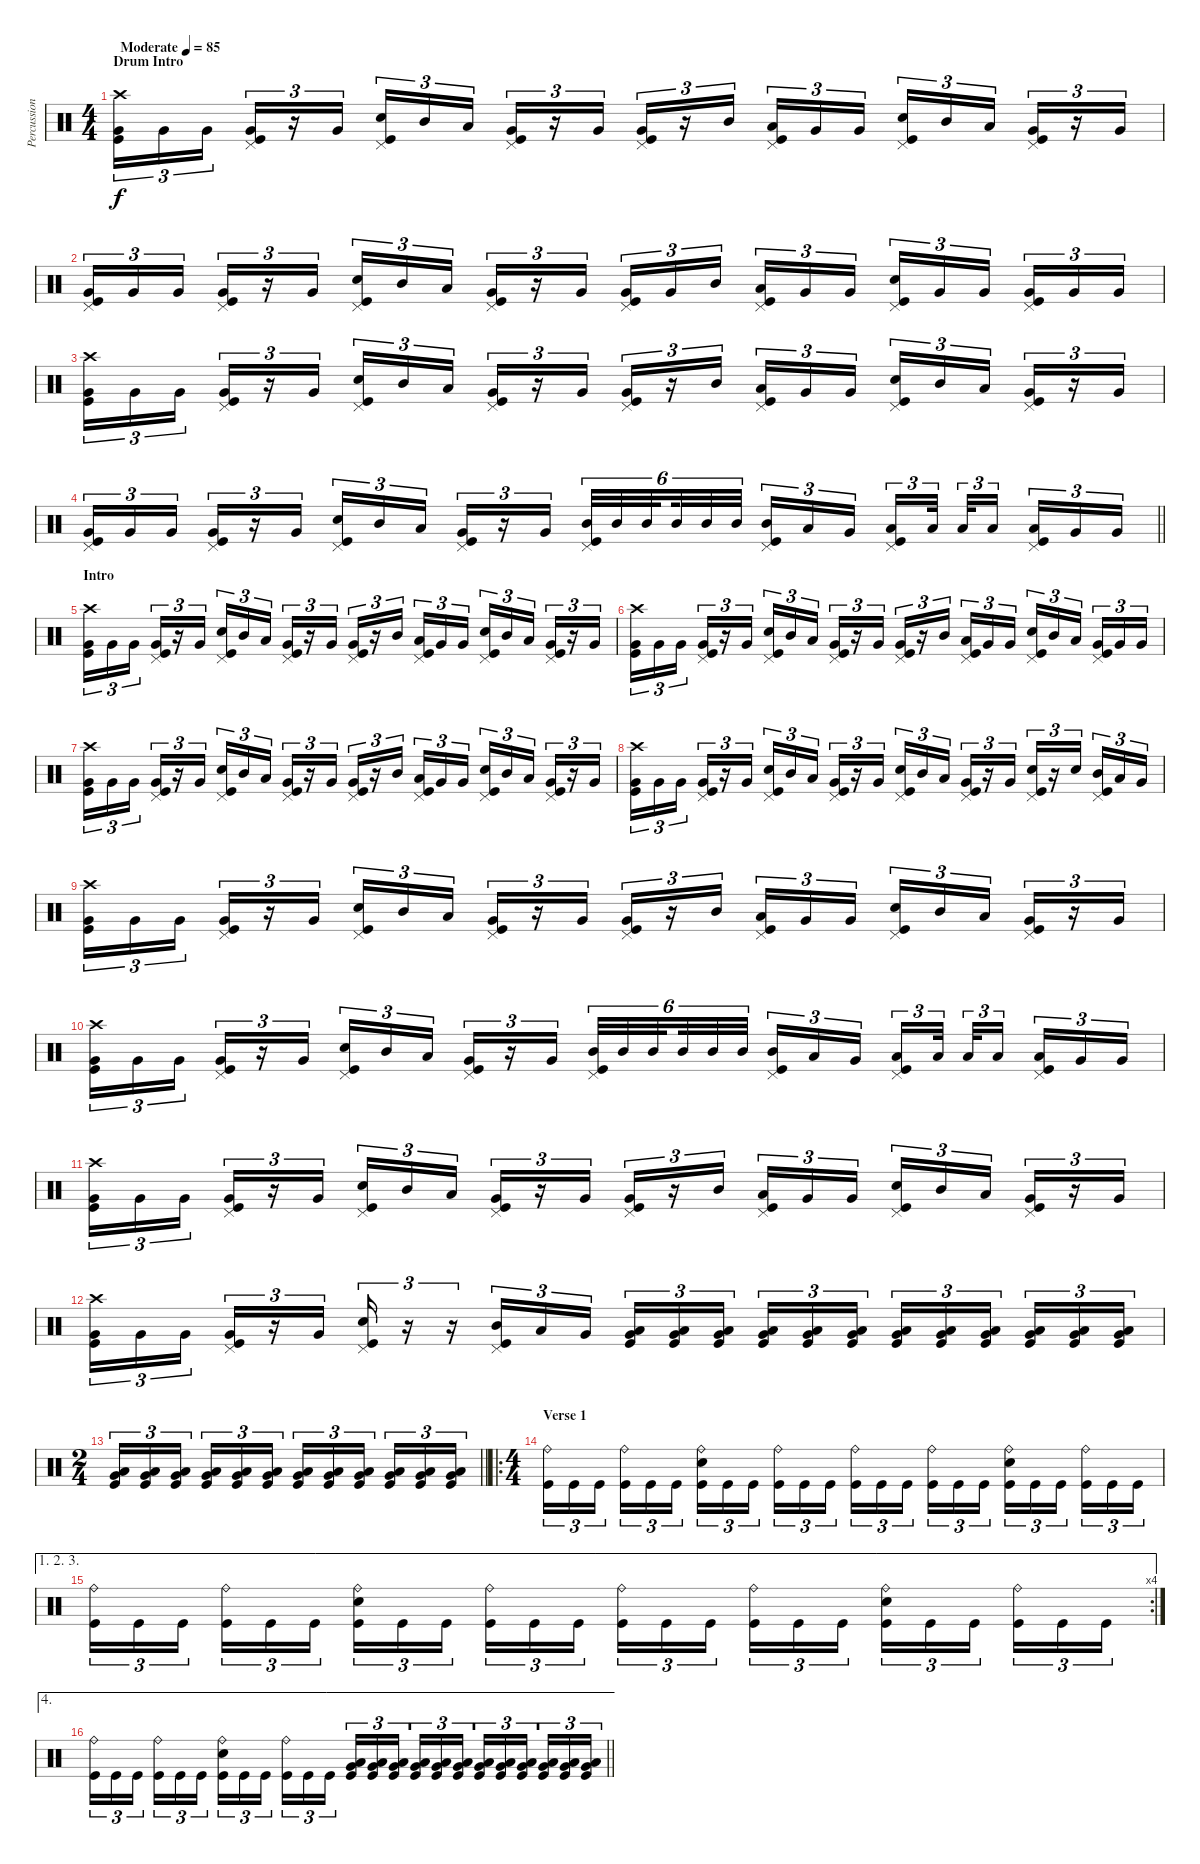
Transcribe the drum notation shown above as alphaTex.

\track ("Percussion" "Percussion") {instrument percussion}
\staff {score}
\articulation defaults
\ts (4 4)
\section ("" "Drum Intro")
\tempo (85 "Moderate")
\clef neutral
\ks c
("Crash high (hit)" "Very Low Tom (hit)" "Kick (hit)").16{tu (3 2) dy f} "Very Low Tom (hit)".16{tu (3 2)} "Very Low Tom (hit)".16{tu (3 2) beam splitsecondary} ("Pedal Hi-Hat (hit)" "Very Low Tom (hit)" "Kick (hit)").16{tu (3 2)} r.16{tu (3 2)} "Very Low Tom (hit)".16{tu (3 2)} ("Pedal Hi-Hat (hit)" "Electric Snare (hit)" "Kick (hit)").16{tu (3 2)} "Mid Tom (hit)".16{tu (3 2)} "Low Tom (hit)".16{tu (3 2) beam splitsecondary} ("Pedal Hi-Hat (hit)" "Very Low Tom (hit)" "Kick (hit)").16{tu (3 2)} r.16{tu (3 2)} "Very Low Tom (hit)".16{tu (3 2)} ("Pedal Hi-Hat (hit)" "Very Low Tom (hit)" "Kick (hit)").16{tu (3 2)} r.16{tu (3 2)} "Mid Tom (hit)".16{tu (3 2) beam splitsecondary} ("Pedal Hi-Hat (hit)" "Low Tom (hit)" "Kick (hit)").16{tu (3 2)} "Very Low Tom (hit)".16{tu (3 2)} "Very Low Tom (hit)".16{tu (3 2)} ("Pedal Hi-Hat (hit)" "Electric Snare (hit)" "Kick (hit)").16{tu (3 2)} "Mid Tom (hit)".16{tu (3 2)} "Low Tom (hit)".16{tu (3 2) beam splitsecondary} ("Pedal Hi-Hat (hit)" "Very Low Tom (hit)" "Kick (hit)").16{tu (3 2)} r.16{tu (3 2)} "Very Low Tom (hit)".16{tu (3 2)} |
("Pedal Hi-Hat (hit)" "Very Low Tom (hit)" "Kick (hit)").16{tu (3 2)} "Very Low Tom (hit)".16{tu (3 2)} "Very Low Tom (hit)".16{tu (3 2) beam splitsecondary} ("Pedal Hi-Hat (hit)" "Very Low Tom (hit)" "Kick (hit)").16{tu (3 2)} r.16{tu (3 2)} "Very Low Tom (hit)".16{tu (3 2)} ("Pedal Hi-Hat (hit)" "Electric Snare (hit)" "Kick (hit)").16{tu (3 2)} "Mid Tom (hit)".16{tu (3 2)} "Low Tom (hit)".16{tu (3 2) beam splitsecondary} ("Pedal Hi-Hat (hit)" "Very Low Tom (hit)" "Kick (hit)").16{tu (3 2)} r.16{tu (3 2)} "Very Low Tom (hit)".16{tu (3 2)} ("Pedal Hi-Hat (hit)" "Very Low Tom (hit)" "Kick (hit)").16{tu (3 2)} "Very Low Tom (hit)".16{tu (3 2)} "Mid Tom (hit)".16{tu (3 2) beam splitsecondary} ("Pedal Hi-Hat (hit)" "Low Tom (hit)" "Kick (hit)").16{tu (3 2)} "Very Low Tom (hit)".16{tu (3 2)} "Very Low Tom (hit)".16{tu (3 2)} ("Pedal Hi-Hat (hit)" "Electric Snare (hit)" "Kick (hit)").16{tu (3 2)} "Very Low Tom (hit)".16{tu (3 2)} "Very Low Tom (hit)".16{tu (3 2) beam splitsecondary} ("Pedal Hi-Hat (hit)" "Very Low Tom (hit)" "Kick (hit)").16{tu (3 2)} "Very Low Tom (hit)".16{tu (3 2)} "Very Low Tom (hit)".16{tu (3 2)} |
("Crash high (hit)" "Very Low Tom (hit)" "Kick (hit)").16{tu (3 2)} "Very Low Tom (hit)".16{tu (3 2)} "Very Low Tom (hit)".16{tu (3 2) beam splitsecondary} ("Pedal Hi-Hat (hit)" "Very Low Tom (hit)" "Kick (hit)").16{tu (3 2)} r.16{tu (3 2)} "Very Low Tom (hit)".16{tu (3 2)} ("Pedal Hi-Hat (hit)" "Electric Snare (hit)" "Kick (hit)").16{tu (3 2)} "Mid Tom (hit)".16{tu (3 2)} "Low Tom (hit)".16{tu (3 2) beam splitsecondary} ("Pedal Hi-Hat (hit)" "Very Low Tom (hit)" "Kick (hit)").16{tu (3 2)} r.16{tu (3 2)} "Very Low Tom (hit)".16{tu (3 2)} ("Pedal Hi-Hat (hit)" "Very Low Tom (hit)" "Kick (hit)").16{tu (3 2)} r.16{tu (3 2)} "Mid Tom (hit)".16{tu (3 2) beam splitsecondary} ("Pedal Hi-Hat (hit)" "Low Tom (hit)" "Kick (hit)").16{tu (3 2)} "Very Low Tom (hit)".16{tu (3 2)} "Very Low Tom (hit)".16{tu (3 2)} ("Pedal Hi-Hat (hit)" "Electric Snare (hit)" "Kick (hit)").16{tu (3 2)} "Mid Tom (hit)".16{tu (3 2)} "Low Tom (hit)".16{tu (3 2) beam splitsecondary} ("Pedal Hi-Hat (hit)" "Very Low Tom (hit)" "Kick (hit)").16{tu (3 2)} r.16{tu (3 2)} "Very Low Tom (hit)".16{tu (3 2)} |
\barLineRight lightlight
("Pedal Hi-Hat (hit)" "Very Low Tom (hit)" "Kick (hit)").16{tu (3 2)} "Very Low Tom (hit)".16{tu (3 2)} "Very Low Tom (hit)".16{tu (3 2) beam splitsecondary} ("Pedal Hi-Hat (hit)" "Very Low Tom (hit)" "Kick (hit)").16{tu (3 2)} r.16{tu (3 2)} "Very Low Tom (hit)".16{tu (3 2)} ("Pedal Hi-Hat (hit)" "Electric Snare (hit)" "Kick (hit)").16{tu (3 2)} "Mid Tom (hit)".16{tu (3 2)} "Low Tom (hit)".16{tu (3 2) beam splitsecondary} ("Pedal Hi-Hat (hit)" "Very Low Tom (hit)" "Kick (hit)").16{tu (3 2)} r.16{tu (3 2)} "Very Low Tom (hit)".16{tu (3 2)} ("Pedal Hi-Hat (hit)" "Mid Tom (hit)" "Kick (hit)").32{tu (6 4)} "Mid Tom (hit)".32{tu (6 4)} "Mid Tom (hit)".32{tu (6 4) beam splitsecondary} "Mid Tom (hit)".32{tu (6 4)} "Mid Tom (hit)".32{tu (6 4)} "Mid Tom (hit)".32{tu (6 4) beam splitsecondary} ("Pedal Hi-Hat (hit)" "Mid Tom (hit)" "Kick (hit)").16{tu (3 2)} "Low Tom (hit)".16{tu (3 2)} "Very Low Tom (hit)".16{tu (3 2)} ("Pedal Hi-Hat (hit)" "Low Tom (hit)" "Kick (hit)").16{tu (3 2)} "Low Tom (hit)".32{tu (3 2) beam splitsecondary} "Low Tom (hit)".32{tu (3 2)} "Low Tom (hit)".16{tu (3 2) beam splitsecondary} ("Pedal Hi-Hat (hit)" "Low Tom (hit)" "Kick (hit)").16{tu (3 2)} "Very Low Tom (hit)".16{tu (3 2)} "Very Low Tom (hit)".16{tu (3 2)} |
\section ("" "Intro")
("Crash high (hit)" "Very Low Tom (hit)" "Kick (hit)").16{tu (3 2)} "Very Low Tom (hit)".16{tu (3 2)} "Very Low Tom (hit)".16{tu (3 2) beam splitsecondary} ("Pedal Hi-Hat (hit)" "Very Low Tom (hit)" "Kick (hit)").16{tu (3 2)} r.16{tu (3 2)} "Very Low Tom (hit)".16{tu (3 2)} ("Pedal Hi-Hat (hit)" "Electric Snare (hit)" "Kick (hit)").16{tu (3 2)} "Mid Tom (hit)".16{tu (3 2)} "Low Tom (hit)".16{tu (3 2) beam splitsecondary} ("Pedal Hi-Hat (hit)" "Very Low Tom (hit)" "Kick (hit)").16{tu (3 2)} r.16{tu (3 2)} "Very Low Tom (hit)".16{tu (3 2)} ("Pedal Hi-Hat (hit)" "Very Low Tom (hit)" "Kick (hit)").16{tu (3 2)} r.16{tu (3 2)} "Mid Tom (hit)".16{tu (3 2) beam splitsecondary} ("Pedal Hi-Hat (hit)" "Low Tom (hit)" "Kick (hit)").16{tu (3 2)} "Very Low Tom (hit)".16{tu (3 2)} "Very Low Tom (hit)".16{tu (3 2)} ("Pedal Hi-Hat (hit)" "Electric Snare (hit)" "Kick (hit)").16{tu (3 2)} "Mid Tom (hit)".16{tu (3 2)} "Low Tom (hit)".16{tu (3 2) beam splitsecondary} ("Pedal Hi-Hat (hit)" "Very Low Tom (hit)" "Kick (hit)").16{tu (3 2)} r.16{tu (3 2)} "Very Low Tom (hit)".16{tu (3 2)} |
("Crash high (hit)" "Very Low Tom (hit)" "Kick (hit)").16{tu (3 2)} "Very Low Tom (hit)".16{tu (3 2)} "Very Low Tom (hit)".16{tu (3 2) beam splitsecondary} ("Pedal Hi-Hat (hit)" "Very Low Tom (hit)" "Kick (hit)").16{tu (3 2)} r.16{tu (3 2)} "Very Low Tom (hit)".16{tu (3 2)} ("Pedal Hi-Hat (hit)" "Electric Snare (hit)" "Kick (hit)").16{tu (3 2)} "Mid Tom (hit)".16{tu (3 2)} "Low Tom (hit)".16{tu (3 2) beam splitsecondary} ("Pedal Hi-Hat (hit)" "Very Low Tom (hit)" "Kick (hit)").16{tu (3 2)} r.16{tu (3 2)} "Very Low Tom (hit)".16{tu (3 2)} ("Pedal Hi-Hat (hit)" "Very Low Tom (hit)" "Kick (hit)").16{tu (3 2)} r.16{tu (3 2)} "Mid Tom (hit)".16{tu (3 2) beam splitsecondary} ("Pedal Hi-Hat (hit)" "Low Tom (hit)" "Kick (hit)").16{tu (3 2)} "Very Low Tom (hit)".16{tu (3 2)} "Very Low Tom (hit)".16{tu (3 2)} ("Pedal Hi-Hat (hit)" "Electric Snare (hit)" "Kick (hit)").16{tu (3 2)} "Mid Tom (hit)".16{tu (3 2)} "Low Tom (hit)".16{tu (3 2) beam splitsecondary} ("Pedal Hi-Hat (hit)" "Very Low Tom (hit)" "Kick (hit)").16{tu (3 2)} "Very Low Tom (hit)".16{tu (3 2)} "Very Low Tom (hit)".16{tu (3 2)} |
("Crash high (hit)" "Very Low Tom (hit)" "Kick (hit)").16{tu (3 2)} "Very Low Tom (hit)".16{tu (3 2)} "Very Low Tom (hit)".16{tu (3 2) beam splitsecondary} ("Pedal Hi-Hat (hit)" "Very Low Tom (hit)" "Kick (hit)").16{tu (3 2)} r.16{tu (3 2)} "Very Low Tom (hit)".16{tu (3 2)} ("Pedal Hi-Hat (hit)" "Electric Snare (hit)" "Kick (hit)").16{tu (3 2)} "Mid Tom (hit)".16{tu (3 2)} "Low Tom (hit)".16{tu (3 2) beam splitsecondary} ("Pedal Hi-Hat (hit)" "Very Low Tom (hit)" "Kick (hit)").16{tu (3 2)} r.16{tu (3 2)} "Very Low Tom (hit)".16{tu (3 2)} ("Pedal Hi-Hat (hit)" "Very Low Tom (hit)" "Kick (hit)").16{tu (3 2)} r.16{tu (3 2)} "Mid Tom (hit)".16{tu (3 2) beam splitsecondary} ("Pedal Hi-Hat (hit)" "Low Tom (hit)" "Kick (hit)").16{tu (3 2)} "Very Low Tom (hit)".16{tu (3 2)} "Very Low Tom (hit)".16{tu (3 2)} ("Pedal Hi-Hat (hit)" "Electric Snare (hit)" "Kick (hit)").16{tu (3 2)} "Mid Tom (hit)".16{tu (3 2)} "Low Tom (hit)".16{tu (3 2) beam splitsecondary} ("Pedal Hi-Hat (hit)" "Very Low Tom (hit)" "Kick (hit)").16{tu (3 2)} r.16{tu (3 2)} "Very Low Tom (hit)".16{tu (3 2)} |
("Crash high (hit)" "Very Low Tom (hit)" "Kick (hit)").16{tu (3 2)} "Very Low Tom (hit)".16{tu (3 2)} "Very Low Tom (hit)".16{tu (3 2) beam splitsecondary} ("Pedal Hi-Hat (hit)" "Very Low Tom (hit)" "Kick (hit)").16{tu (3 2)} r.16{tu (3 2)} "Very Low Tom (hit)".16{tu (3 2)} ("Pedal Hi-Hat (hit)" "Electric Snare (hit)" "Kick (hit)").16{tu (3 2)} "Mid Tom (hit)".16{tu (3 2)} "Low Tom (hit)".16{tu (3 2) beam splitsecondary} ("Pedal Hi-Hat (hit)" "Very Low Tom (hit)" "Kick (hit)").16{tu (3 2)} r.16{tu (3 2)} "Very Low Tom (hit)".16{tu (3 2)} ("Pedal Hi-Hat (hit)" "Electric Snare (hit)" "Kick (hit)").16{tu (3 2)} "Mid Tom (hit)".16{tu (3 2)} "Low Tom (hit)".16{tu (3 2) beam splitsecondary} ("Pedal Hi-Hat (hit)" "Very Low Tom (hit)" "Kick (hit)").16{tu (3 2)} r.16{tu (3 2)} "Very Low Tom (hit)".16{tu (3 2)} ("Pedal Hi-Hat (hit)" "Electric Snare (hit)" "Kick (hit)").16{tu (3 2)} r.16{tu (3 2)} "Electric Snare (hit)".16{tu (3 2) beam splitsecondary} ("Pedal Hi-Hat (hit)" "Mid Tom (hit)" "Kick (hit)").16{tu (3 2)} "Low Tom (hit)".16{tu (3 2)} "Very Low Tom (hit)".16{tu (3 2)} |
("Crash high (hit)" "Very Low Tom (hit)" "Kick (hit)").16{tu (3 2)} "Very Low Tom (hit)".16{tu (3 2)} "Very Low Tom (hit)".16{tu (3 2) beam splitsecondary} ("Pedal Hi-Hat (hit)" "Very Low Tom (hit)" "Kick (hit)").16{tu (3 2)} r.16{tu (3 2)} "Very Low Tom (hit)".16{tu (3 2)} ("Pedal Hi-Hat (hit)" "Electric Snare (hit)" "Kick (hit)").16{tu (3 2)} "Mid Tom (hit)".16{tu (3 2)} "Low Tom (hit)".16{tu (3 2) beam splitsecondary} ("Pedal Hi-Hat (hit)" "Very Low Tom (hit)" "Kick (hit)").16{tu (3 2)} r.16{tu (3 2)} "Very Low Tom (hit)".16{tu (3 2)} ("Pedal Hi-Hat (hit)" "Very Low Tom (hit)" "Kick (hit)").16{tu (3 2)} r.16{tu (3 2)} "Mid Tom (hit)".16{tu (3 2) beam splitsecondary} ("Pedal Hi-Hat (hit)" "Low Tom (hit)" "Kick (hit)").16{tu (3 2)} "Very Low Tom (hit)".16{tu (3 2)} "Very Low Tom (hit)".16{tu (3 2)} ("Pedal Hi-Hat (hit)" "Electric Snare (hit)" "Kick (hit)").16{tu (3 2)} "Mid Tom (hit)".16{tu (3 2)} "Low Tom (hit)".16{tu (3 2) beam splitsecondary} ("Pedal Hi-Hat (hit)" "Very Low Tom (hit)" "Kick (hit)").16{tu (3 2)} r.16{tu (3 2)} "Very Low Tom (hit)".16{tu (3 2)} |
("Crash high (hit)" "Very Low Tom (hit)" "Kick (hit)").16{tu (3 2)} "Very Low Tom (hit)".16{tu (3 2)} "Very Low Tom (hit)".16{tu (3 2) beam splitsecondary} ("Pedal Hi-Hat (hit)" "Very Low Tom (hit)" "Kick (hit)").16{tu (3 2)} r.16{tu (3 2)} "Very Low Tom (hit)".16{tu (3 2)} ("Pedal Hi-Hat (hit)" "Electric Snare (hit)" "Kick (hit)").16{tu (3 2)} "Mid Tom (hit)".16{tu (3 2)} "Low Tom (hit)".16{tu (3 2) beam splitsecondary} ("Pedal Hi-Hat (hit)" "Very Low Tom (hit)" "Kick (hit)").16{tu (3 2)} r.16{tu (3 2)} "Very Low Tom (hit)".16{tu (3 2)} ("Pedal Hi-Hat (hit)" "Mid Tom (hit)" "Kick (hit)").32{tu (6 4)} "Mid Tom (hit)".32{tu (6 4)} "Mid Tom (hit)".32{tu (6 4) beam splitsecondary} "Mid Tom (hit)".32{tu (6 4)} "Mid Tom (hit)".32{tu (6 4)} "Mid Tom (hit)".32{tu (6 4) beam splitsecondary} ("Pedal Hi-Hat (hit)" "Mid Tom (hit)" "Kick (hit)").16{tu (3 2)} "Low Tom (hit)".16{tu (3 2)} "Very Low Tom (hit)".16{tu (3 2)} ("Pedal Hi-Hat (hit)" "Low Tom (hit)" "Kick (hit)").16{tu (3 2)} "Low Tom (hit)".32{tu (3 2) beam splitsecondary} "Low Tom (hit)".32{tu (3 2)} "Low Tom (hit)".16{tu (3 2) beam splitsecondary} ("Pedal Hi-Hat (hit)" "Low Tom (hit)" "Kick (hit)").16{tu (3 2)} "Very Low Tom (hit)".16{tu (3 2)} "Very Low Tom (hit)".16{tu (3 2)} |
("Crash high (hit)" "Very Low Tom (hit)" "Kick (hit)").16{tu (3 2)} "Very Low Tom (hit)".16{tu (3 2)} "Very Low Tom (hit)".16{tu (3 2) beam splitsecondary} ("Pedal Hi-Hat (hit)" "Very Low Tom (hit)" "Kick (hit)").16{tu (3 2)} r.16{tu (3 2)} "Very Low Tom (hit)".16{tu (3 2)} ("Pedal Hi-Hat (hit)" "Electric Snare (hit)" "Kick (hit)").16{tu (3 2)} "Mid Tom (hit)".16{tu (3 2)} "Low Tom (hit)".16{tu (3 2) beam splitsecondary} ("Pedal Hi-Hat (hit)" "Very Low Tom (hit)" "Kick (hit)").16{tu (3 2)} r.16{tu (3 2)} "Very Low Tom (hit)".16{tu (3 2)} ("Pedal Hi-Hat (hit)" "Very Low Tom (hit)" "Kick (hit)").16{tu (3 2)} r.16{tu (3 2)} "Mid Tom (hit)".16{tu (3 2) beam splitsecondary} ("Pedal Hi-Hat (hit)" "Low Tom (hit)" "Kick (hit)").16{tu (3 2)} "Very Low Tom (hit)".16{tu (3 2)} "Very Low Tom (hit)".16{tu (3 2)} ("Pedal Hi-Hat (hit)" "Electric Snare (hit)" "Kick (hit)").16{tu (3 2)} "Mid Tom (hit)".16{tu (3 2)} "Low Tom (hit)".16{tu (3 2) beam splitsecondary} ("Pedal Hi-Hat (hit)" "Very Low Tom (hit)" "Kick (hit)").16{tu (3 2)} r.16{tu (3 2)} "Very Low Tom (hit)".16{tu (3 2)} |
("Crash high (hit)" "Very Low Tom (hit)" "Kick (hit)").16{tu (3 2)} "Very Low Tom (hit)".16{tu (3 2)} "Very Low Tom (hit)".16{tu (3 2) beam splitsecondary} ("Pedal Hi-Hat (hit)" "Very Low Tom (hit)" "Kick (hit)").16{tu (3 2)} r.16{tu (3 2)} "Very Low Tom (hit)".16{tu (3 2)} ("Pedal Hi-Hat (hit)" "Electric Snare (hit)" "Kick (hit)").16{tu (3 2)} r.16{tu (3 2)} r.16{tu (3 2)} ("Pedal Hi-Hat (hit)" "Mid Tom (hit)" "Kick (hit)").16{tu (3 2)} "Low Tom (hit)".16{tu (3 2)} "Very Low Tom (hit)".16{tu (3 2)} ("Low Tom (hit)" "Very Low Tom (hit)" "Kick (hit)").16{tu (3 2)} ("Low Tom (hit)" "Very Low Tom (hit)" "Kick (hit)").16{tu (3 2)} ("Low Tom (hit)" "Very Low Tom (hit)" "Kick (hit)").16{tu (3 2) beam splitsecondary} ("Low Tom (hit)" "Very Low Tom (hit)" "Kick (hit)").16{tu (3 2)} ("Low Tom (hit)" "Very Low Tom (hit)" "Kick (hit)").16{tu (3 2)} ("Low Tom (hit)" "Very Low Tom (hit)" "Kick (hit)").16{tu (3 2)} ("Low Tom (hit)" "Very Low Tom (hit)" "Kick (hit)").16{tu (3 2)} ("Low Tom (hit)" "Very Low Tom (hit)" "Kick (hit)").16{tu (3 2)} ("Low Tom (hit)" "Very Low Tom (hit)" "Kick (hit)").16{tu (3 2) beam splitsecondary} ("Low Tom (hit)" "Very Low Tom (hit)" "Kick (hit)").16{tu (3 2)} ("Low Tom (hit)" "Very Low Tom (hit)" "Kick (hit)").16{tu (3 2)} ("Low Tom (hit)" "Very Low Tom (hit)" "Kick (hit)").16{tu (3 2)} |
\ts (2 4)
\barLineRight lightlight
("Low Tom (hit)" "Very Low Tom (hit)" "Kick (hit)").16{tu (3 2)} ("Low Tom (hit)" "Very Low Tom (hit)" "Kick (hit)").16{tu (3 2)} ("Low Tom (hit)" "Very Low Tom (hit)" "Kick (hit)").16{tu (3 2) beam splitsecondary} ("Low Tom (hit)" "Very Low Tom (hit)" "Kick (hit)").16{tu (3 2)} ("Low Tom (hit)" "Very Low Tom (hit)" "Kick (hit)").16{tu (3 2)} ("Low Tom (hit)" "Very Low Tom (hit)" "Kick (hit)").16{tu (3 2)} ("Low Tom (hit)" "Very Low Tom (hit)" "Kick (hit)").16{tu (3 2)} ("Low Tom (hit)" "Very Low Tom (hit)" "Kick (hit)").16{tu (3 2)} ("Low Tom (hit)" "Very Low Tom (hit)" "Kick (hit)").16{tu (3 2) beam splitsecondary} ("Low Tom (hit)" "Very Low Tom (hit)" "Kick (hit)").16{tu (3 2)} ("Low Tom (hit)" "Very Low Tom (hit)" "Kick (hit)").16{tu (3 2)} ("Low Tom (hit)" "Very Low Tom (hit)" "Kick (hit)").16{tu (3 2)} |
\ro
\ts (4 4)
\section ("" "Verse 1")
("Ride (bell)" "Kick (hit)").16{tu (3 2)} "Kick (hit)".16{tu (3 2)} "Kick (hit)".16{tu (3 2) beam splitsecondary} ("Ride (bell)" "Kick (hit)").16{tu (3 2)} "Kick (hit)".16{tu (3 2)} "Kick (hit)".16{tu (3 2)} ("Ride (bell)" "Electric Snare (hit)" "Kick (hit)").16{tu (3 2)} "Kick (hit)".16{tu (3 2)} "Kick (hit)".16{tu (3 2) beam splitsecondary} ("Ride (bell)" "Kick (hit)").16{tu (3 2)} "Kick (hit)".16{tu (3 2)} "Kick (hit)".16{tu (3 2)} ("Ride (bell)" "Kick (hit)").16{tu (3 2)} "Kick (hit)".16{tu (3 2)} "Kick (hit)".16{tu (3 2) beam splitsecondary} ("Ride (bell)" "Kick (hit)").16{tu (3 2)} "Kick (hit)".16{tu (3 2)} "Kick (hit)".16{tu (3 2)} ("Ride (bell)" "Electric Snare (hit)" "Kick (hit)").16{tu (3 2)} "Kick (hit)".16{tu (3 2)} "Kick (hit)".16{tu (3 2) beam splitsecondary} ("Ride (bell)" "Kick (hit)").16{tu (3 2)} "Kick (hit)".16{tu (3 2)} "Kick (hit)".16{tu (3 2)} |
\ae (1 2 3)
\rc 4
("Ride (bell)" "Kick (hit)").16{tu (3 2)} "Kick (hit)".16{tu (3 2)} "Kick (hit)".16{tu (3 2) beam splitsecondary} ("Ride (bell)" "Kick (hit)").16{tu (3 2)} "Kick (hit)".16{tu (3 2)} "Kick (hit)".16{tu (3 2)} ("Ride (bell)" "Electric Snare (hit)" "Kick (hit)").16{tu (3 2)} "Kick (hit)".16{tu (3 2)} "Kick (hit)".16{tu (3 2) beam splitsecondary} ("Ride (bell)" "Kick (hit)").16{tu (3 2)} "Kick (hit)".16{tu (3 2)} "Kick (hit)".16{tu (3 2)} ("Ride (bell)" "Kick (hit)").16{tu (3 2)} "Kick (hit)".16{tu (3 2)} "Kick (hit)".16{tu (3 2) beam splitsecondary} ("Ride (bell)" "Kick (hit)").16{tu (3 2)} "Kick (hit)".16{tu (3 2)} "Kick (hit)".16{tu (3 2)} ("Ride (bell)" "Electric Snare (hit)" "Kick (hit)").16{tu (3 2)} "Kick (hit)".16{tu (3 2)} "Kick (hit)".16{tu (3 2) beam splitsecondary} ("Ride (bell)" "Kick (hit)").16{tu (3 2)} "Kick (hit)".16{tu (3 2)} "Kick (hit)".16{tu (3 2)} |
\ae 4
\barLineRight lightlight
("Ride (bell)" "Kick (hit)").16{tu (3 2)} "Kick (hit)".16{tu (3 2)} "Kick (hit)".16{tu (3 2) beam splitsecondary} ("Ride (bell)" "Kick (hit)").16{tu (3 2)} "Kick (hit)".16{tu (3 2)} "Kick (hit)".16{tu (3 2)} ("Ride (bell)" "Electric Snare (hit)" "Kick (hit)").16{tu (3 2)} "Kick (hit)".16{tu (3 2)} "Kick (hit)".16{tu (3 2) beam splitsecondary} ("Ride (bell)" "Kick (hit)").16{tu (3 2)} "Kick (hit)".16{tu (3 2)} "Kick (hit)".16{tu (3 2)} ("Low Tom (hit)" "Very Low Tom (hit)" "Kick (hit)").16{tu (3 2)} ("Low Tom (hit)" "Very Low Tom (hit)" "Kick (hit)").16{tu (3 2)} ("Low Tom (hit)" "Very Low Tom (hit)" "Kick (hit)").16{tu (3 2) beam splitsecondary} ("Low Tom (hit)" "Very Low Tom (hit)" "Kick (hit)").16{tu (3 2)} ("Low Tom (hit)" "Very Low Tom (hit)" "Kick (hit)").16{tu (3 2)} ("Low Tom (hit)" "Very Low Tom (hit)" "Kick (hit)").16{tu (3 2)} ("Low Tom (hit)" "Very Low Tom (hit)" "Kick (hit)").16{tu (3 2)} ("Low Tom (hit)" "Very Low Tom (hit)" "Kick (hit)").16{tu (3 2)} ("Low Tom (hit)" "Very Low Tom (hit)" "Kick (hit)").16{tu (3 2) beam splitsecondary} ("Low Tom (hit)" "Very Low Tom (hit)" "Kick (hit)").16{tu (3 2)} ("Low Tom (hit)" "Very Low Tom (hit)" "Kick (hit)").16{tu (3 2)} ("Low Tom (hit)" "Very Low Tom (hit)" "Kick (hit)").16{tu (3 2)}
